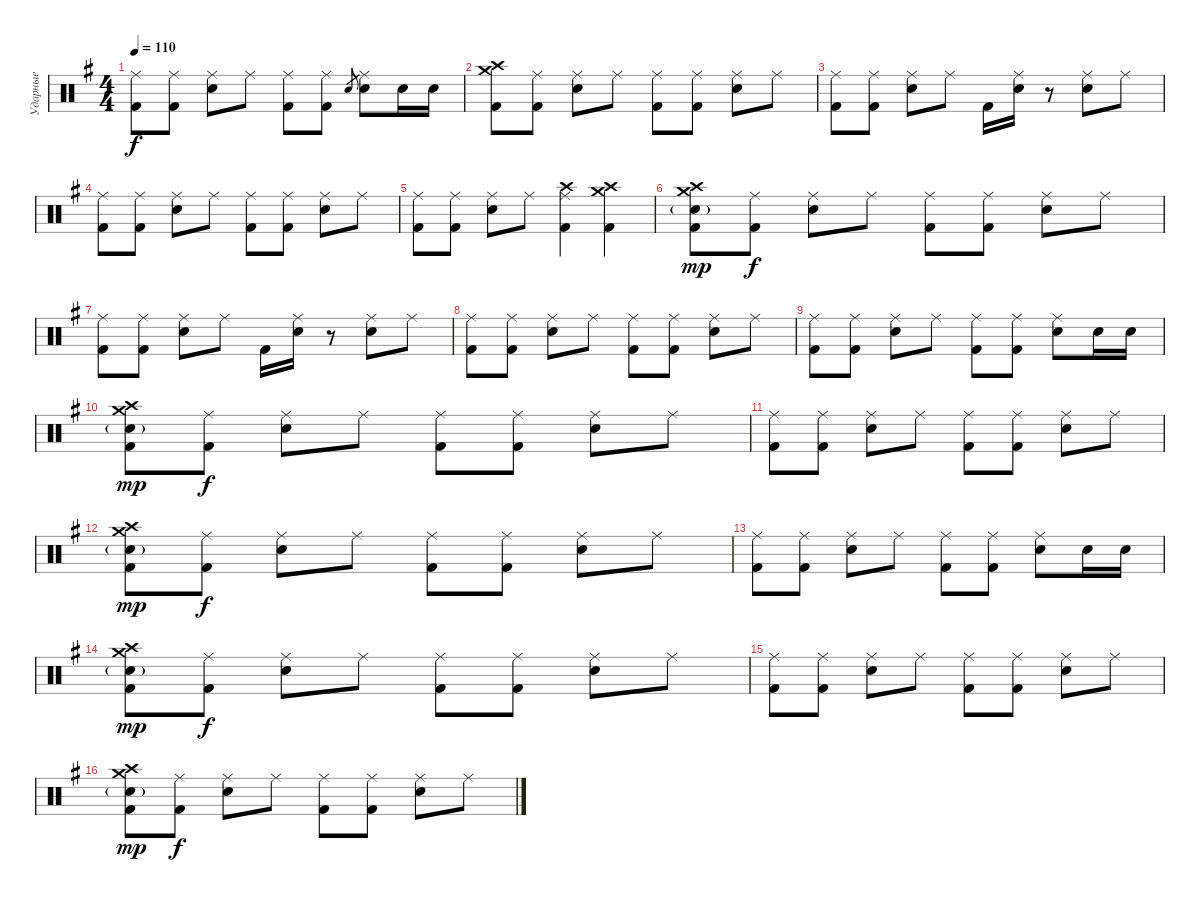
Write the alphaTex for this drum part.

\track ("Ударные" "Ударные") {instrument percussion}
\staff {score}
\articulation defaults
\ts (4 4)
\tempo 110
\clef neutral
\ks eminor
("Ride (middle)" "Kick (hit) 2").8{dy f} ("Ride (middle)" "Kick (hit) 2").8 ("Ride (middle)" "Electric Snare (hit)").8 "Ride (middle)".8 ("Ride (middle)" "Kick (hit) 2").8 ("Ride (middle)" "Kick (hit) 2").8 "Electric Snare (hit)".8{gr} ("Ride (middle)" "Electric Snare (hit)").8 "Electric Snare (hit)".16 "Electric Snare (hit)".16 |
("Crash high (hit)" "Crash medium (hit)" "Kick (hit) 2").8 ("Ride (middle)" "Kick (hit) 2").8 ("Ride (middle)" "Electric Snare (hit)").8 "Ride (middle)".8 ("Ride (middle)" "Kick (hit) 2").8 ("Ride (middle)" "Kick (hit) 2").8 ("Ride (middle)" "Electric Snare (hit)").8 "Ride (middle)".8 |
("Ride (middle)" "Kick (hit) 2").8 ("Ride (middle)" "Kick (hit) 2").8 ("Ride (middle)" "Electric Snare (hit)").8 "Ride (middle)".8 "Kick (hit) 2".16 ("Ride (middle)" "Electric Snare (hit)").16 r.8 ("Ride (middle)" "Electric Snare (hit)").8 "Ride (middle)".8 |
("Ride (middle)" "Kick (hit) 2").8 ("Ride (middle)" "Kick (hit) 2").8 ("Ride (middle)" "Electric Snare (hit)").8 "Ride (middle)".8 ("Ride (middle)" "Kick (hit) 2").8 ("Ride (middle)" "Kick (hit) 2").8 ("Ride (middle)" "Electric Snare (hit)").8 "Ride (middle)".8 |
("Ride (middle)" "Kick (hit) 2").8 ("Ride (middle)" "Kick (hit) 2").8 ("Ride (middle)" "Electric Snare (hit)").8 "Ride (middle)".8 ("Ride (middle)" "Crash high (hit)" "Kick (hit) 2").4 ("Crash medium (hit)" "Crash high (hit)" "Kick (hit) 2").4 |
("Crash high (hit)" "Crash medium (hit)" "Electric Snare (hit)"{g} "Kick (hit) 2").8{dy mp} ("Ride (middle)" "Kick (hit) 2").8{dy f} ("Ride (middle)" "Electric Snare (hit)").8 "Ride (middle)".8 ("Ride (middle)" "Kick (hit) 2").8 ("Ride (middle)" "Kick (hit) 2").8 ("Ride (middle)" "Electric Snare (hit)").8 "Ride (middle)".8 |
("Ride (middle)" "Kick (hit) 2").8 ("Ride (middle)" "Kick (hit) 2").8 ("Ride (middle)" "Electric Snare (hit)").8 "Ride (middle)".8 "Kick (hit) 2".16 ("Ride (middle)" "Electric Snare (hit)").16 r.8 ("Ride (middle)" "Electric Snare (hit)").8 "Ride (middle)".8 |
("Ride (middle)" "Kick (hit) 2").8 ("Ride (middle)" "Kick (hit) 2").8 ("Ride (middle)" "Electric Snare (hit)").8 "Ride (middle)".8 ("Ride (middle)" "Kick (hit) 2").8 ("Ride (middle)" "Kick (hit) 2").8 ("Ride (middle)" "Electric Snare (hit)").8 "Ride (middle)".8 |
("Ride (middle)" "Kick (hit) 2").8 ("Ride (middle)" "Kick (hit) 2").8 ("Ride (middle)" "Electric Snare (hit)").8 "Ride (middle)".8 ("Ride (middle)" "Kick (hit) 2").8 ("Ride (middle)" "Kick (hit) 2").8 ("Ride (middle)" "Electric Snare (hit)").8 "Electric Snare (hit)".16 "Electric Snare (hit)".16 |
("Crash high (hit)" "Crash medium (hit)" "Electric Snare (hit)"{g} "Kick (hit) 2").8{dy mp} ("Ride (middle)" "Kick (hit) 2").8{dy f} ("Ride (middle)" "Electric Snare (hit)").8 "Ride (middle)".8 ("Ride (middle)" "Kick (hit) 2").8 ("Ride (middle)" "Kick (hit) 2").8 ("Ride (middle)" "Electric Snare (hit)").8 "Ride (middle)".8 |
("Ride (middle)" "Kick (hit) 2").8 ("Ride (middle)" "Kick (hit) 2").8 ("Ride (middle)" "Electric Snare (hit)").8 "Ride (middle)".8 ("Ride (middle)" "Kick (hit) 2").8 ("Ride (middle)" "Kick (hit) 2").8 ("Ride (middle)" "Electric Snare (hit)").8 "Ride (middle)".8 |
("Crash high (hit)" "Crash medium (hit)" "Electric Snare (hit)"{g} "Kick (hit) 2").8{dy mp} ("Ride (middle)" "Kick (hit) 2").8{dy f} ("Ride (middle)" "Electric Snare (hit)").8 "Ride (middle)".8 ("Ride (middle)" "Kick (hit) 2").8 ("Ride (middle)" "Kick (hit) 2").8 ("Ride (middle)" "Electric Snare (hit)").8 "Ride (middle)".8 |
("Ride (middle)" "Kick (hit) 2").8 ("Ride (middle)" "Kick (hit) 2").8 ("Ride (middle)" "Electric Snare (hit)").8 "Ride (middle)".8 ("Ride (middle)" "Kick (hit) 2").8 ("Ride (middle)" "Kick (hit) 2").8 ("Ride (middle)" "Electric Snare (hit)").8 "Electric Snare (hit)".16 "Electric Snare (hit)".16 |
("Crash high (hit)" "Crash medium (hit)" "Electric Snare (hit)"{g} "Kick (hit) 2").8{dy mp} ("Ride (middle)" "Kick (hit) 2").8{dy f} ("Ride (middle)" "Electric Snare (hit)").8 "Ride (middle)".8 ("Ride (middle)" "Kick (hit) 2").8 ("Ride (middle)" "Kick (hit) 2").8 ("Ride (middle)" "Electric Snare (hit)").8 "Ride (middle)".8 |
("Ride (middle)" "Kick (hit) 2").8 ("Ride (middle)" "Kick (hit) 2").8 ("Ride (middle)" "Electric Snare (hit)").8 "Ride (middle)".8 ("Ride (middle)" "Kick (hit) 2").8 ("Ride (middle)" "Kick (hit) 2").8 ("Ride (middle)" "Electric Snare (hit)").8 "Ride (middle)".8 |
("Crash high (hit)" "Crash medium (hit)" "Electric Snare (hit)"{g} "Kick (hit) 2").8{dy mp} ("Ride (middle)" "Kick (hit) 2").8{dy f} ("Ride (middle)" "Electric Snare (hit)").8 "Ride (middle)".8 ("Ride (middle)" "Kick (hit) 2").8 ("Ride (middle)" "Kick (hit) 2").8 ("Ride (middle)" "Electric Snare (hit)").8 "Ride (middle)".8
